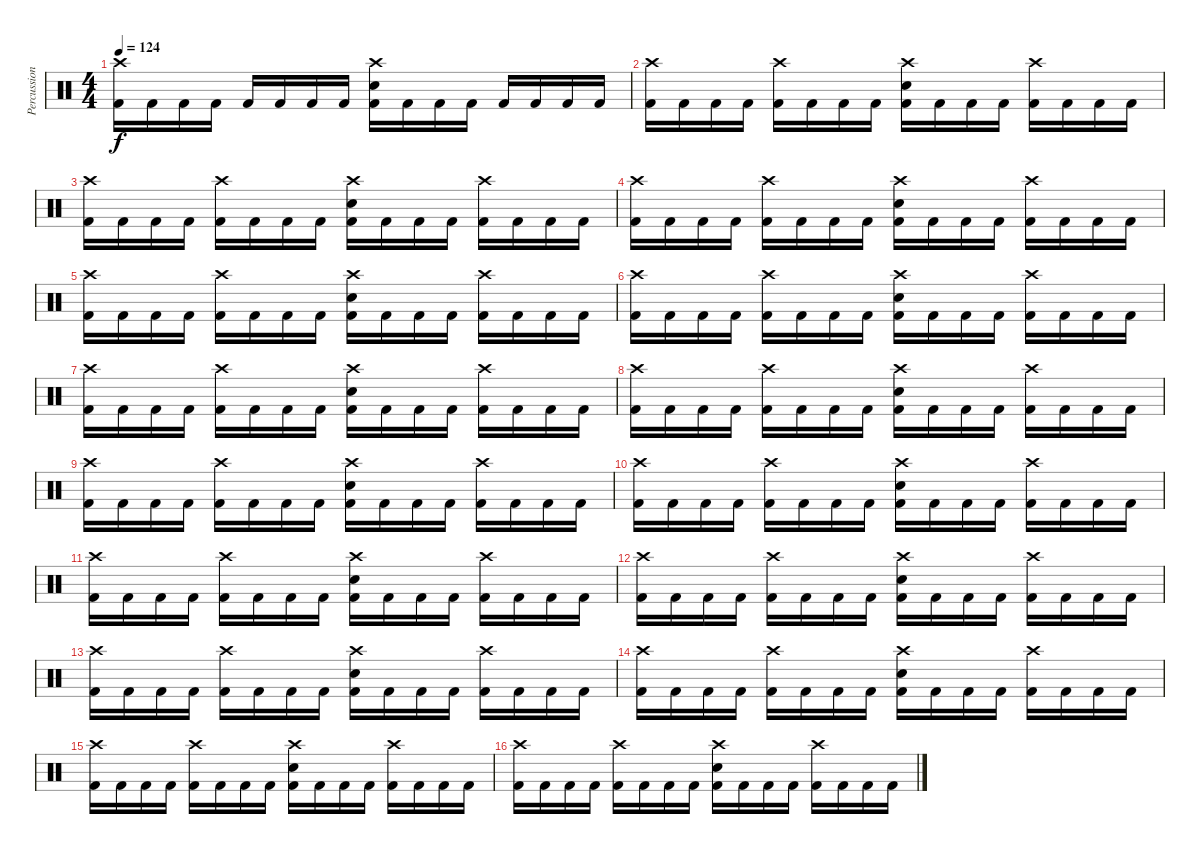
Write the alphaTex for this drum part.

\track ("Percussion" "Percussion") {instrument percussion}
\staff {score}
\articulation defaults
\ts (4 4)
\tempo 124
\clef neutral
\ks c
("Crash high (hit)" "Kick (hit) 2").16{dy f} "Kick (hit) 2".16 "Kick (hit) 2".16 "Kick (hit) 2".16 "Kick (hit) 2".16 "Kick (hit) 2".16 "Kick (hit) 2".16 "Kick (hit) 2".16 ("Crash high (hit)" "Snare (hit) 2" "Kick (hit) 2").16 "Kick (hit) 2".16 "Kick (hit) 2".16 "Kick (hit) 2".16 "Kick (hit) 2".16 "Kick (hit) 2".16 "Kick (hit) 2".16 "Kick (hit) 2".16 |
("Crash high (hit)" "Kick (hit) 2").16 "Kick (hit) 2".16 "Kick (hit) 2".16 "Kick (hit) 2".16 ("Crash high (hit)" "Kick (hit) 2").16 "Kick (hit) 2".16 "Kick (hit) 2".16 "Kick (hit) 2".16 ("Crash high (hit)" "Snare (hit) 2" "Kick (hit) 2").16 "Kick (hit) 2".16 "Kick (hit) 2".16 "Kick (hit) 2".16 ("Crash high (hit)" "Kick (hit) 2").16 "Kick (hit) 2".16 "Kick (hit) 2".16 "Kick (hit) 2".16 |
("Crash high (hit)" "Kick (hit) 2").16 "Kick (hit) 2".16 "Kick (hit) 2".16 "Kick (hit) 2".16 ("Crash high (hit)" "Kick (hit) 2").16 "Kick (hit) 2".16 "Kick (hit) 2".16 "Kick (hit) 2".16 ("Crash high (hit)" "Snare (hit) 2" "Kick (hit) 2").16 "Kick (hit) 2".16 "Kick (hit) 2".16 "Kick (hit) 2".16 ("Crash high (hit)" "Kick (hit) 2").16 "Kick (hit) 2".16 "Kick (hit) 2".16 "Kick (hit) 2".16 |
("Crash high (hit)" "Kick (hit) 2").16 "Kick (hit) 2".16 "Kick (hit) 2".16 "Kick (hit) 2".16 ("Crash high (hit)" "Kick (hit) 2").16 "Kick (hit) 2".16 "Kick (hit) 2".16 "Kick (hit) 2".16 ("Crash high (hit)" "Snare (hit) 2" "Kick (hit) 2").16 "Kick (hit) 2".16 "Kick (hit) 2".16 "Kick (hit) 2".16 ("Crash high (hit)" "Kick (hit) 2").16 "Kick (hit) 2".16 "Kick (hit) 2".16 "Kick (hit) 2".16 |
("Crash high (hit)" "Kick (hit) 2").16 "Kick (hit) 2".16 "Kick (hit) 2".16 "Kick (hit) 2".16 ("Crash high (hit)" "Kick (hit) 2").16 "Kick (hit) 2".16 "Kick (hit) 2".16 "Kick (hit) 2".16 ("Crash high (hit)" "Snare (hit) 2" "Kick (hit) 2").16 "Kick (hit) 2".16 "Kick (hit) 2".16 "Kick (hit) 2".16 ("Crash high (hit)" "Kick (hit) 2").16 "Kick (hit) 2".16 "Kick (hit) 2".16 "Kick (hit) 2".16 |
("Crash high (hit)" "Kick (hit) 2").16 "Kick (hit) 2".16 "Kick (hit) 2".16 "Kick (hit) 2".16 ("Crash high (hit)" "Kick (hit) 2").16 "Kick (hit) 2".16 "Kick (hit) 2".16 "Kick (hit) 2".16 ("Crash high (hit)" "Snare (hit) 2" "Kick (hit) 2").16 "Kick (hit) 2".16 "Kick (hit) 2".16 "Kick (hit) 2".16 ("Crash high (hit)" "Kick (hit) 2").16 "Kick (hit) 2".16 "Kick (hit) 2".16 "Kick (hit) 2".16 |
("Crash high (hit)" "Kick (hit) 2").16 "Kick (hit) 2".16 "Kick (hit) 2".16 "Kick (hit) 2".16 ("Crash high (hit)" "Kick (hit) 2").16 "Kick (hit) 2".16 "Kick (hit) 2".16 "Kick (hit) 2".16 ("Crash high (hit)" "Snare (hit) 2" "Kick (hit) 2").16 "Kick (hit) 2".16 "Kick (hit) 2".16 "Kick (hit) 2".16 ("Crash high (hit)" "Kick (hit) 2").16 "Kick (hit) 2".16 "Kick (hit) 2".16 "Kick (hit) 2".16 |
("Crash high (hit)" "Kick (hit) 2").16 "Kick (hit) 2".16 "Kick (hit) 2".16 "Kick (hit) 2".16 ("Crash high (hit)" "Kick (hit) 2").16 "Kick (hit) 2".16 "Kick (hit) 2".16 "Kick (hit) 2".16 ("Crash high (hit)" "Snare (hit) 2" "Kick (hit) 2").16 "Kick (hit) 2".16 "Kick (hit) 2".16 "Kick (hit) 2".16 ("Crash high (hit)" "Kick (hit) 2").16 "Kick (hit) 2".16 "Kick (hit) 2".16 "Kick (hit) 2".16 |
("Crash high (hit)" "Kick (hit) 2").16 "Kick (hit) 2".16 "Kick (hit) 2".16 "Kick (hit) 2".16 ("Crash high (hit)" "Kick (hit) 2").16 "Kick (hit) 2".16 "Kick (hit) 2".16 "Kick (hit) 2".16 ("Crash high (hit)" "Snare (hit) 2" "Kick (hit) 2").16 "Kick (hit) 2".16 "Kick (hit) 2".16 "Kick (hit) 2".16 ("Crash high (hit)" "Kick (hit) 2").16 "Kick (hit) 2".16 "Kick (hit) 2".16 "Kick (hit) 2".16 |
("Crash high (hit)" "Kick (hit) 2").16 "Kick (hit) 2".16 "Kick (hit) 2".16 "Kick (hit) 2".16 ("Crash high (hit)" "Kick (hit) 2").16 "Kick (hit) 2".16 "Kick (hit) 2".16 "Kick (hit) 2".16 ("Crash high (hit)" "Snare (hit) 2" "Kick (hit) 2").16 "Kick (hit) 2".16 "Kick (hit) 2".16 "Kick (hit) 2".16 ("Crash high (hit)" "Kick (hit) 2").16 "Kick (hit) 2".16 "Kick (hit) 2".16 "Kick (hit) 2".16 |
("Crash high (hit)" "Kick (hit) 2").16 "Kick (hit) 2".16 "Kick (hit) 2".16 "Kick (hit) 2".16 ("Crash high (hit)" "Kick (hit) 2").16 "Kick (hit) 2".16 "Kick (hit) 2".16 "Kick (hit) 2".16 ("Crash high (hit)" "Snare (hit) 2" "Kick (hit) 2").16 "Kick (hit) 2".16 "Kick (hit) 2".16 "Kick (hit) 2".16 ("Crash high (hit)" "Kick (hit) 2").16 "Kick (hit) 2".16 "Kick (hit) 2".16 "Kick (hit) 2".16 |
("Crash high (hit)" "Kick (hit) 2").16 "Kick (hit) 2".16 "Kick (hit) 2".16 "Kick (hit) 2".16 ("Crash high (hit)" "Kick (hit) 2").16 "Kick (hit) 2".16 "Kick (hit) 2".16 "Kick (hit) 2".16 ("Crash high (hit)" "Snare (hit) 2" "Kick (hit) 2").16 "Kick (hit) 2".16 "Kick (hit) 2".16 "Kick (hit) 2".16 ("Crash high (hit)" "Kick (hit) 2").16 "Kick (hit) 2".16 "Kick (hit) 2".16 "Kick (hit) 2".16 |
("Crash high (hit)" "Kick (hit) 2").16 "Kick (hit) 2".16 "Kick (hit) 2".16 "Kick (hit) 2".16 ("Crash high (hit)" "Kick (hit) 2").16 "Kick (hit) 2".16 "Kick (hit) 2".16 "Kick (hit) 2".16 ("Crash high (hit)" "Snare (hit) 2" "Kick (hit) 2").16 "Kick (hit) 2".16 "Kick (hit) 2".16 "Kick (hit) 2".16 ("Crash high (hit)" "Kick (hit) 2").16 "Kick (hit) 2".16 "Kick (hit) 2".16 "Kick (hit) 2".16 |
("Crash high (hit)" "Kick (hit) 2").16 "Kick (hit) 2".16 "Kick (hit) 2".16 "Kick (hit) 2".16 ("Crash high (hit)" "Kick (hit) 2").16 "Kick (hit) 2".16 "Kick (hit) 2".16 "Kick (hit) 2".16 ("Crash high (hit)" "Snare (hit) 2" "Kick (hit) 2").16 "Kick (hit) 2".16 "Kick (hit) 2".16 "Kick (hit) 2".16 ("Crash high (hit)" "Kick (hit) 2").16 "Kick (hit) 2".16 "Kick (hit) 2".16 "Kick (hit) 2".16 |
("Crash high (hit)" "Kick (hit) 2").16 "Kick (hit) 2".16 "Kick (hit) 2".16 "Kick (hit) 2".16 ("Crash high (hit)" "Kick (hit) 2").16 "Kick (hit) 2".16 "Kick (hit) 2".16 "Kick (hit) 2".16 ("Crash high (hit)" "Snare (hit) 2" "Kick (hit) 2").16 "Kick (hit) 2".16 "Kick (hit) 2".16 "Kick (hit) 2".16 ("Crash high (hit)" "Kick (hit) 2").16 "Kick (hit) 2".16 "Kick (hit) 2".16 "Kick (hit) 2".16 |
("Crash high (hit)" "Kick (hit) 2").16 "Kick (hit) 2".16 "Kick (hit) 2".16 "Kick (hit) 2".16 ("Crash high (hit)" "Kick (hit) 2").16 "Kick (hit) 2".16 "Kick (hit) 2".16 "Kick (hit) 2".16 ("Crash high (hit)" "Snare (hit) 2" "Kick (hit) 2").16 "Kick (hit) 2".16 "Kick (hit) 2".16 "Kick (hit) 2".16 ("Crash high (hit)" "Kick (hit) 2").16 "Kick (hit) 2".16 "Kick (hit) 2".16 "Kick (hit) 2".16
